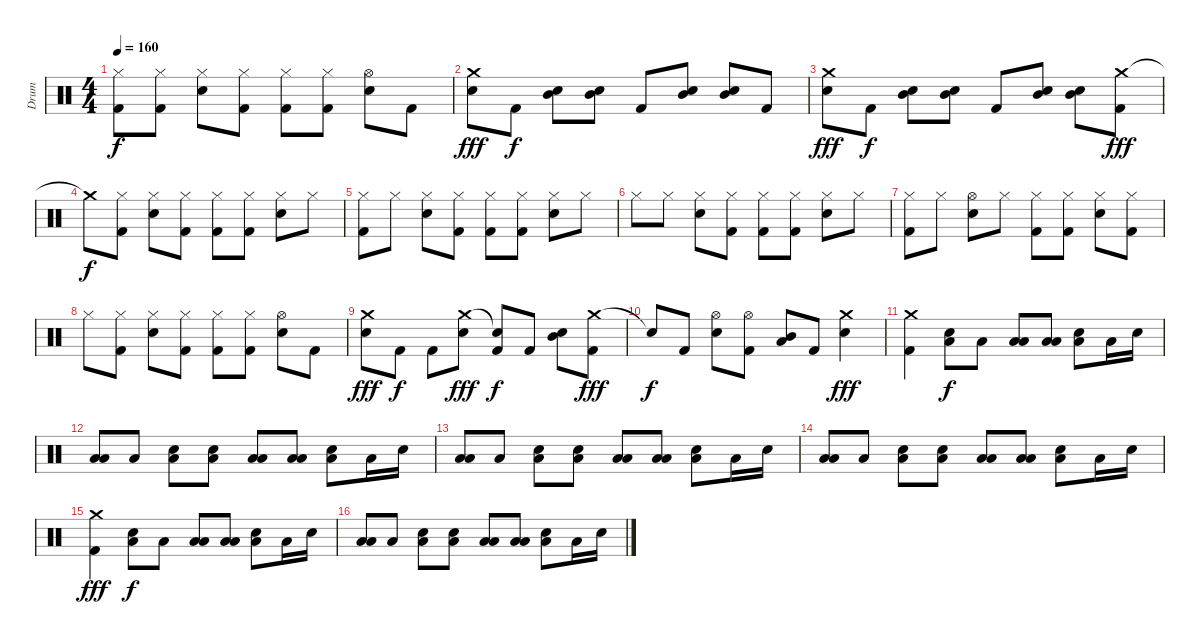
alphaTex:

\track ("Drum" "Drum") {instrument percussion}
\staff {score}
\articulation defaults
\ts (4 4)
\tempo 160
\clef neutral
\ks c
("Hi-Hat (closed)" "Kick (hit) 2").8{dy f} ("Hi-Hat (closed)" "Kick (hit) 2").8 ("Hi-Hat (closed)" "Snare (hit) 2").8 ("Hi-Hat (closed)" "Kick (hit) 2").8 ("Hi-Hat (closed)" "Kick (hit) 2").8 ("Hi-Hat (closed)" "Kick (hit) 2").8 ("Hi-Hat (open)" "Snare (hit) 2").8 "Kick (hit) 2".8 |
("Crash medium (hit)" "Snare (hit) 2").8{dy fff} "Kick (hit) 2".8{dy f} ("Snare (hit) 2" "Mid Tom (hit)").8 ("Snare (hit) 2" "Mid Tom (hit)").8 "Kick (hit) 2".8 ("Snare (hit) 2" "Mid Tom (hit)").8 ("Snare (hit) 2" "Mid Tom (hit)").8 "Kick (hit) 2".8 |
("Crash medium (hit)" "Snare (hit) 2").8{dy fff} "Kick (hit) 2".8{dy f} ("Snare (hit) 2" "Mid Tom (hit)").8 ("Snare (hit) 2" "Mid Tom (hit)").8 "Kick (hit) 2".8 ("Snare (hit) 2" "Mid Tom (hit)").8 ("Snare (hit) 2" "Mid Tom (hit)").8 ("Crash medium (hit)" "Kick (hit) 2").8{dy fff} |
"Crash medium (hit)"{t}.8{dy f} ("Hi-Hat (closed)" "Kick (hit) 2").8 ("Hi-Hat (closed)" "Snare (hit) 2").8 ("Hi-Hat (closed)" "Kick (hit) 2").8 ("Hi-Hat (closed)" "Kick (hit) 2").8 ("Hi-Hat (closed)" "Kick (hit) 2").8 ("Hi-Hat (closed)" "Snare (hit) 2").8 "Hi-Hat (closed)".8 |
("Hi-Hat (closed)" "Kick (hit) 2").8 "Hi-Hat (closed)".8 ("Hi-Hat (closed)" "Snare (hit) 2").8 ("Hi-Hat (closed)" "Kick (hit) 2").8 ("Hi-Hat (closed)" "Kick (hit) 2").8 ("Hi-Hat (closed)" "Kick (hit) 2").8 ("Hi-Hat (closed)" "Snare (hit) 2").8 "Hi-Hat (closed)".8 |
"Hi-Hat (closed)".8 "Hi-Hat (closed)".8 ("Hi-Hat (closed)" "Snare (hit) 2").8 ("Hi-Hat (closed)" "Kick (hit) 2").8 ("Hi-Hat (closed)" "Kick (hit) 2").8 ("Hi-Hat (closed)" "Kick (hit) 2").8 ("Hi-Hat (closed)" "Snare (hit) 2").8 "Hi-Hat (closed)".8 |
("Hi-Hat (closed)" "Kick (hit) 2").8 "Hi-Hat (closed)".8 ("Hi-Hat (open)" "Snare (hit) 2").8 "Hi-Hat (closed)".8 ("Hi-Hat (closed)" "Kick (hit) 2").8 ("Hi-Hat (closed)" "Kick (hit) 2").8 ("Hi-Hat (closed)" "Snare (hit) 2").8 ("Hi-Hat (closed)" "Kick (hit) 2").8 |
"Hi-Hat (closed)".8 ("Hi-Hat (closed)" "Kick (hit) 2").8 ("Hi-Hat (closed)" "Snare (hit) 2").8 ("Hi-Hat (closed)" "Kick (hit) 2").8 ("Hi-Hat (closed)" "Kick (hit) 2").8 ("Hi-Hat (closed)" "Kick (hit) 2").8 ("Hi-Hat (open)" "Snare (hit) 2").8 "Kick (hit) 2".8 |
("Crash medium (hit)" "Snare (hit) 2").8{dy fff} "Kick (hit) 2".8{dy f} "Kick (hit) 2".8 ("Crash medium (hit)" "Snare (hit) 2").8{dy fff} ("Snare (hit)"{t} "Kick (hit) 2").8{dy f} "Kick (hit) 2".8 ("Snare (hit) 2" "Mid Tom (hit)").8 ("Crash medium (hit)" "Kick (hit) 2").8{dy fff} |
"Snare (hit)"{t}.8{dy f} "Kick (hit) 2".8 ("Hi-Hat (open)" "Snare (hit) 2").8 ("Hi-Hat (open)" "Kick (hit) 2").8 ("Low Tom (hit)" "Mid Tom (hit)").8 "Kick (hit) 2".8 ("Crash medium (hit)" "Snare (hit) 2").4{dy fff} |
("Crash medium (hit)" "Kick (hit) 2").4 ("Snare (hit) 2" "Low Tom (hit)").8{dy f} "Low Tom (hit)".8 ("Low Tom (hit)" "Low Floor Tom (hit)").8 ("Low Tom (hit)" "Low Floor Tom (hit)").8 ("Snare (hit) 2" "Low Tom (hit)").8 "Low Tom (hit)".16 "Snare (hit) 2".16 |
("Low Tom (hit)" "Low Floor Tom (hit)").8 "Low Tom (hit)".8 ("Snare (hit) 2" "Low Tom (hit)").8 ("Snare (hit) 2" "Low Tom (hit)").8 ("Low Tom (hit)" "Low Floor Tom (hit)").8 ("Low Tom (hit)" "Low Floor Tom (hit)").8 ("Snare (hit) 2" "Low Tom (hit)").8 "Low Tom (hit)".16 "Snare (hit) 2".16 |
("Low Tom (hit)" "Low Floor Tom (hit)").8 "Low Tom (hit)".8 ("Snare (hit) 2" "Low Tom (hit)").8 ("Snare (hit) 2" "Low Tom (hit)").8 ("Low Tom (hit)" "Low Floor Tom (hit)").8 ("Low Tom (hit)" "Low Floor Tom (hit)").8 ("Snare (hit) 2" "Low Tom (hit)").8 "Low Tom (hit)".16 "Snare (hit) 2".16 |
("Low Tom (hit)" "Low Floor Tom (hit)").8 "Low Tom (hit)".8 ("Snare (hit) 2" "Low Tom (hit)").8 ("Snare (hit) 2" "Low Tom (hit)").8 ("Low Tom (hit)" "Low Floor Tom (hit)").8 ("Low Tom (hit)" "Low Floor Tom (hit)").8 ("Snare (hit) 2" "Low Tom (hit)").8 "Low Tom (hit)".16 "Snare (hit) 2".16 |
("Crash medium (hit)" "Kick (hit) 2").4{dy fff} ("Snare (hit) 2" "Low Tom (hit)").8{dy f} "Low Tom (hit)".8 ("Low Tom (hit)" "Low Floor Tom (hit)").8 ("Low Tom (hit)" "Low Floor Tom (hit)").8 ("Snare (hit) 2" "Low Tom (hit)").8 "Low Tom (hit)".16 "Snare (hit) 2".16 |
("Low Tom (hit)" "Low Floor Tom (hit)").8 "Low Tom (hit)".8 ("Snare (hit) 2" "Low Tom (hit)").8 ("Snare (hit) 2" "Low Tom (hit)").8 ("Low Tom (hit)" "Low Floor Tom (hit)").8 ("Low Tom (hit)" "Low Floor Tom (hit)").8 ("Snare (hit) 2" "Low Tom (hit)").8 "Low Tom (hit)".16 "Snare (hit) 2".16
